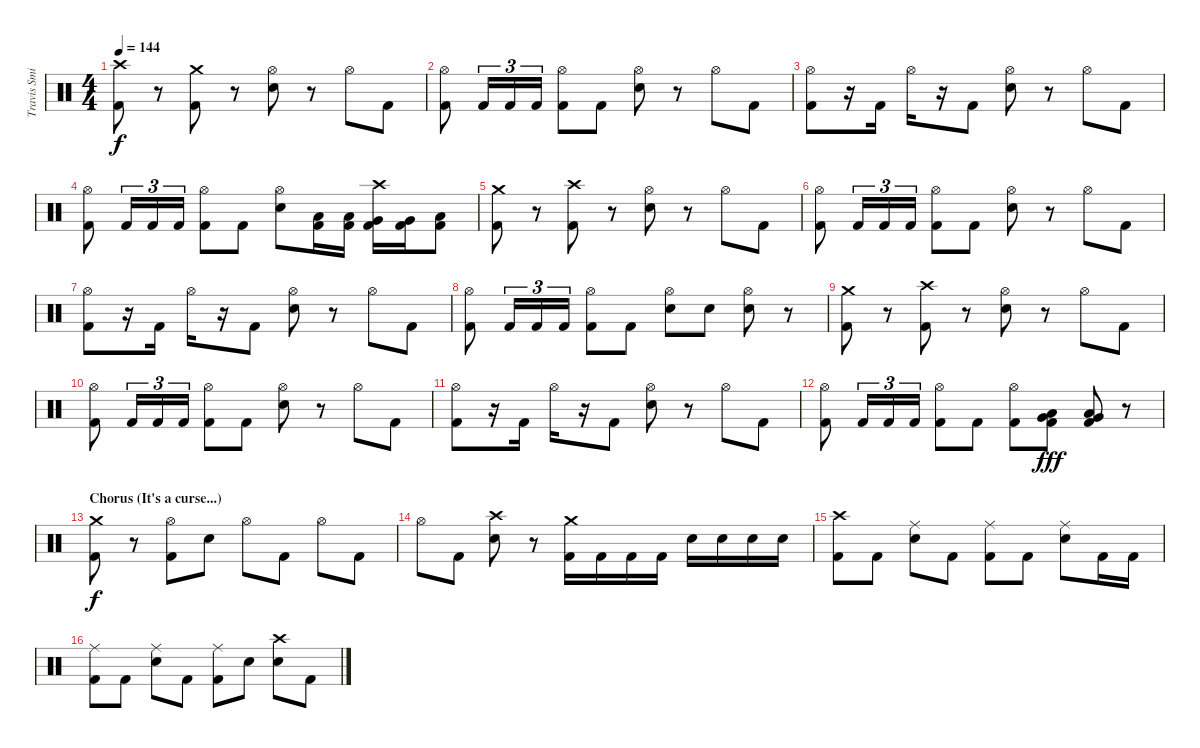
\track ("Travis Smith" "Travis Smi") {instrument percussion}
\staff {score}
\articulation defaults
\ts (4 4)
\tempo 144
\clef neutral
\ks c
("Crash high (hit)" "Kick (hit) 2").8{dy f} r.8 ("Crash medium (hit)" "Kick (hit) 2").8 r.8 ("Hi-Hat (open)" "Electric Snare (hit)").8 r.8 "Hi-Hat (open)".8 "Kick (hit) 2".8 |
("Hi-Hat (open)" "Kick (hit) 2").8 "Kick (hit) 2".16{tu (3 2)} "Kick (hit) 2".16{tu (3 2)} "Kick (hit) 2".16{tu (3 2)} ("Hi-Hat (open)" "Kick (hit) 2").8 "Kick (hit) 2".8 ("Hi-Hat (open)" "Electric Snare (hit)").8 r.8 "Hi-Hat (open)".8 "Kick (hit) 2".8 |
("Hi-Hat (open)" "Kick (hit) 2").8 r.16 "Kick (hit) 2".16 "Hi-Hat (open)".16 r.16 "Kick (hit) 2".8 ("Hi-Hat (open)" "Electric Snare (hit)").8 r.8 "Hi-Hat (open)".8 "Kick (hit) 2".8 |
("Hi-Hat (open)" "Kick (hit) 2").8 "Kick (hit) 2".16{tu (3 2)} "Kick (hit) 2".16{tu (3 2)} "Kick (hit) 2".16{tu (3 2)} ("Hi-Hat (open)" "Kick (hit) 2").8 "Kick (hit) 2".8 ("Hi-Hat (open)" "Electric Snare (hit)").8 ("Low Tom (hit)" "Kick (hit) 2").16 ("Low Tom (hit)" "Kick (hit) 2").16 ("Crash high (hit)" "Very Low Tom (hit)" "Kick (hit) 2").16 ("Very Low Tom (hit)" "Kick (hit) 2").16 ("Low Floor Tom (hit)" "Kick (hit) 2").8 |
("Crash medium (hit)" "Kick (hit) 2").8 r.8 ("Crash high (hit)" "Kick (hit) 2").8 r.8 ("Hi-Hat (open)" "Electric Snare (hit)").8 r.8 "Hi-Hat (open)".8 "Kick (hit) 2".8 |
("Hi-Hat (open)" "Kick (hit) 2").8 "Kick (hit) 2".16{tu (3 2)} "Kick (hit) 2".16{tu (3 2)} "Kick (hit) 2".16{tu (3 2)} ("Hi-Hat (open)" "Kick (hit) 2").8 "Kick (hit) 2".8 ("Hi-Hat (open)" "Electric Snare (hit)").8 r.8 "Hi-Hat (open)".8 "Kick (hit) 2".8 |
("Hi-Hat (open)" "Kick (hit) 2").8 r.16 "Kick (hit) 2".16 "Hi-Hat (open)".16 r.16 "Kick (hit) 2".8 ("Hi-Hat (open)" "Electric Snare (hit)").8 r.8 "Hi-Hat (open)".8 "Kick (hit) 2".8 |
("Hi-Hat (open)" "Kick (hit) 2").8 "Kick (hit) 2".16{tu (3 2)} "Kick (hit) 2".16{tu (3 2)} "Kick (hit) 2".16{tu (3 2)} ("Hi-Hat (open)" "Kick (hit) 2").8 "Kick (hit) 2".8 ("Hi-Hat (open)" "Electric Snare (hit)").8 "Electric Snare (hit)".8 ("Hi-Hat (open)" "Electric Snare (hit)").8 r.8 |
("Crash medium (hit)" "Kick (hit) 2").8 r.8 ("Crash high (hit)" "Kick (hit) 2").8 r.8 ("Hi-Hat (open)" "Electric Snare (hit)").8 r.8 "Hi-Hat (open)".8 "Kick (hit) 2".8 |
("Hi-Hat (open)" "Kick (hit) 2").8 "Kick (hit) 2".16{tu (3 2)} "Kick (hit) 2".16{tu (3 2)} "Kick (hit) 2".16{tu (3 2)} ("Hi-Hat (open)" "Kick (hit) 2").8 "Kick (hit) 2".8 ("Hi-Hat (open)" "Electric Snare (hit)").8 r.8 "Hi-Hat (open)".8 "Kick (hit) 2".8 |
("Hi-Hat (open)" "Kick (hit) 2").8 r.16 "Kick (hit) 2".16 "Hi-Hat (open)".16 r.16 "Kick (hit) 2".8 ("Hi-Hat (open)" "Electric Snare (hit)").8 r.8 "Hi-Hat (open)".8 "Kick (hit) 2".8 |
("Hi-Hat (open)" "Kick (hit) 2").8 "Kick (hit) 2".16{tu (3 2)} "Kick (hit) 2".16{tu (3 2)} "Kick (hit) 2".16{tu (3 2)} ("Hi-Hat (open)" "Kick (hit) 2").8 "Kick (hit) 2".8 ("Hi-Hat (open)" "Kick (hit) 2").8 ("Very Low Tom (hit)" "Low Floor Tom (hit)" "Kick (hit) 2").8{dy fff} ("Very Low Tom (hit)" "Low Floor Tom (hit)" "Kick (hit) 2").8 r.8 |
\section ("" "Chorus (It's a curse...)")
("Crash medium (hit)" "Kick (hit) 2").8{dy f} r.8 ("Hi-Hat (open)" "Kick (hit) 2").8 "Electric Snare (hit)".8 "Hi-Hat (open)".8 "Kick (hit) 2".8 "Hi-Hat (open)".8 "Kick (hit) 2".8 |
"Hi-Hat (open)".8 "Kick (hit) 2".8 ("Crash high (hit)" "Electric Snare (hit)").8 r.8 ("Crash medium (hit)" "Kick (hit) 2").16 "Kick (hit) 2".16 "Kick (hit) 2".16 "Kick (hit) 2".16 "Electric Snare (hit)".16 "Electric Snare (hit)".16 "Electric Snare (hit)".16 "Electric Snare (hit)".16 |
("Crash high (hit)" "Kick (hit) 2").8 "Kick (hit) 2".8 ("Ride (middle)" "Electric Snare (hit)").8 "Kick (hit) 2".8 ("Ride (middle)" "Kick (hit) 2").8 "Kick (hit) 2".8 ("Ride (middle)" "Electric Snare (hit)").8 "Kick (hit) 2".16 "Kick (hit) 2".16 |
("Ride (middle)" "Kick (hit) 2").8 "Kick (hit) 2".8 ("Ride (middle)" "Electric Snare (hit)").8 "Kick (hit) 2".8 ("Ride (middle)" "Kick (hit) 2").8 "Electric Snare (hit)".8 ("Crash high (hit)" "Electric Snare (hit)").8 "Kick (hit) 2".8
